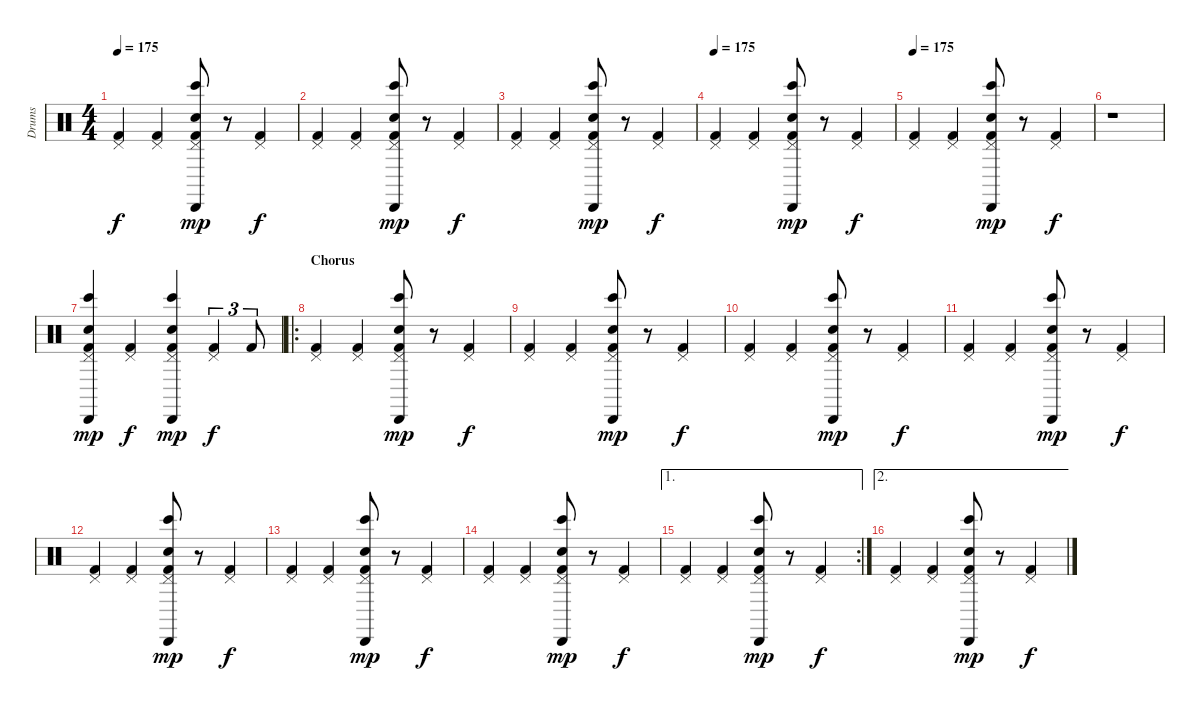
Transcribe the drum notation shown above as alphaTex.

\track ("Drums" "Drums") {instrument percussion}
\staff {score}
\articulation defaults
\ts (4 4)
\tempo 175
\clef neutral
\ks c
("Pedal Hi-Hat (hit)" "Kick (hit) 2").4{dy f} ("Pedal Hi-Hat (hit)" "Kick (hit) 2").4 ("Cabasa (hit)" "Bongo High (hit)" "Pedal Hi-Hat (hit)" "Snare (hit) 2" "Kick (hit) 2").8{dy mp} r.8{volume 0} ("Pedal Hi-Hat (hit)" "Kick (hit) 2").4{dy f volume 14} |
("Pedal Hi-Hat (hit)" "Kick (hit) 2").4 ("Pedal Hi-Hat (hit)" "Kick (hit) 2").4 ("Cabasa (hit)" "Bongo High (hit)" "Pedal Hi-Hat (hit)" "Snare (hit) 2" "Kick (hit) 2").8{dy mp} r.8{volume 0} ("Pedal Hi-Hat (hit)" "Kick (hit) 2").4{dy f volume 14} |
("Pedal Hi-Hat (hit)" "Kick (hit) 2").4 ("Pedal Hi-Hat (hit)" "Kick (hit) 2").4 ("Cabasa (hit)" "Bongo High (hit)" "Pedal Hi-Hat (hit)" "Snare (hit) 2" "Kick (hit) 2").8{dy mp} r.8{volume 0} ("Pedal Hi-Hat (hit)" "Kick (hit) 2").4{dy f volume 14} |
\tempo 175
("Pedal Hi-Hat (hit)" "Kick (hit) 2").4 ("Pedal Hi-Hat (hit)" "Kick (hit) 2").4 ("Cabasa (hit)" "Bongo High (hit)" "Pedal Hi-Hat (hit)" "Snare (hit) 2" "Kick (hit) 2").8{dy mp} r.8{volume 0} ("Pedal Hi-Hat (hit)" "Kick (hit) 2").4{dy f volume 14} |
\tempo 175
("Pedal Hi-Hat (hit)" "Kick (hit) 2").4 ("Pedal Hi-Hat (hit)" "Kick (hit) 2").4 ("Cabasa (hit)" "Bongo High (hit)" "Pedal Hi-Hat (hit)" "Snare (hit) 2" "Kick (hit) 2").8{dy mp} r.8{volume 0} ("Pedal Hi-Hat (hit)" "Kick (hit) 2").4{dy f volume 14} |
r.1 |
("Cabasa (hit)" "Bongo High (hit)" "Pedal Hi-Hat (hit)" "Snare (hit) 2" "Kick (hit) 2").4{dy mp} ("Pedal Hi-Hat (hit)" "Kick (hit) 2").4{dy f} ("Cabasa (hit)" "Bongo High (hit)" "Pedal Hi-Hat (hit)" "Snare (hit) 2" "Kick (hit) 2").4{dy mp} ("Pedal Hi-Hat (hit)" "Kick (hit) 2").4{tu (3 2) dy f} "Kick (hit) 2".8{tu (3 2)} |
\ro
\section ("" "Chorus")
("Pedal Hi-Hat (hit)" "Kick (hit) 2").4 ("Pedal Hi-Hat (hit)" "Kick (hit) 2").4 ("Cabasa (hit)" "Bongo High (hit)" "Pedal Hi-Hat (hit)" "Snare (hit) 2" "Kick (hit) 2").8{dy mp} r.8{volume 0} ("Pedal Hi-Hat (hit)" "Kick (hit) 2").4{dy f volume 14} |
("Pedal Hi-Hat (hit)" "Kick (hit) 2").4 ("Pedal Hi-Hat (hit)" "Kick (hit) 2").4 ("Cabasa (hit)" "Bongo High (hit)" "Pedal Hi-Hat (hit)" "Snare (hit) 2" "Kick (hit) 2").8{dy mp} r.8{volume 0} ("Pedal Hi-Hat (hit)" "Kick (hit) 2").4{dy f volume 14} |
("Pedal Hi-Hat (hit)" "Kick (hit) 2").4 ("Pedal Hi-Hat (hit)" "Kick (hit) 2").4 ("Cabasa (hit)" "Bongo High (hit)" "Pedal Hi-Hat (hit)" "Snare (hit) 2" "Kick (hit) 2").8{dy mp} r.8{volume 0} ("Pedal Hi-Hat (hit)" "Kick (hit) 2").4{dy f volume 14} |
("Pedal Hi-Hat (hit)" "Kick (hit) 2").4 ("Pedal Hi-Hat (hit)" "Kick (hit) 2").4 ("Cabasa (hit)" "Bongo High (hit)" "Pedal Hi-Hat (hit)" "Snare (hit) 2" "Kick (hit) 2").8{dy mp} r.8{volume 0} ("Pedal Hi-Hat (hit)" "Kick (hit) 2").4{dy f volume 14} |
("Pedal Hi-Hat (hit)" "Kick (hit) 2").4 ("Pedal Hi-Hat (hit)" "Kick (hit) 2").4 ("Cabasa (hit)" "Bongo High (hit)" "Pedal Hi-Hat (hit)" "Snare (hit) 2" "Kick (hit) 2").8{dy mp} r.8{volume 0} ("Pedal Hi-Hat (hit)" "Kick (hit) 2").4{dy f volume 14} |
("Pedal Hi-Hat (hit)" "Kick (hit) 2").4 ("Pedal Hi-Hat (hit)" "Kick (hit) 2").4 ("Cabasa (hit)" "Bongo High (hit)" "Pedal Hi-Hat (hit)" "Snare (hit) 2" "Kick (hit) 2").8{dy mp} r.8{volume 0} ("Pedal Hi-Hat (hit)" "Kick (hit) 2").4{dy f volume 14} |
("Pedal Hi-Hat (hit)" "Kick (hit) 2").4 ("Pedal Hi-Hat (hit)" "Kick (hit) 2").4 ("Cabasa (hit)" "Bongo High (hit)" "Pedal Hi-Hat (hit)" "Snare (hit) 2" "Kick (hit) 2").8{dy mp} r.8{volume 0} ("Pedal Hi-Hat (hit)" "Kick (hit) 2").4{dy f volume 14} |
\ae 1
\rc 2
("Pedal Hi-Hat (hit)" "Kick (hit) 2").4 ("Pedal Hi-Hat (hit)" "Kick (hit) 2").4 ("Cabasa (hit)" "Bongo High (hit)" "Pedal Hi-Hat (hit)" "Snare (hit) 2" "Kick (hit) 2").8{dy mp} r.8{volume 0} ("Pedal Hi-Hat (hit)" "Kick (hit) 2").4{dy f volume 14} |
\ae 2
("Pedal Hi-Hat (hit)" "Kick (hit) 2").4 ("Pedal Hi-Hat (hit)" "Kick (hit) 2").4 ("Cabasa (hit)" "Bongo High (hit)" "Pedal Hi-Hat (hit)" "Snare (hit) 2" "Kick (hit) 2").8{dy mp} r.8{volume 0} ("Pedal Hi-Hat (hit)" "Kick (hit) 2").4{dy f volume 14}
